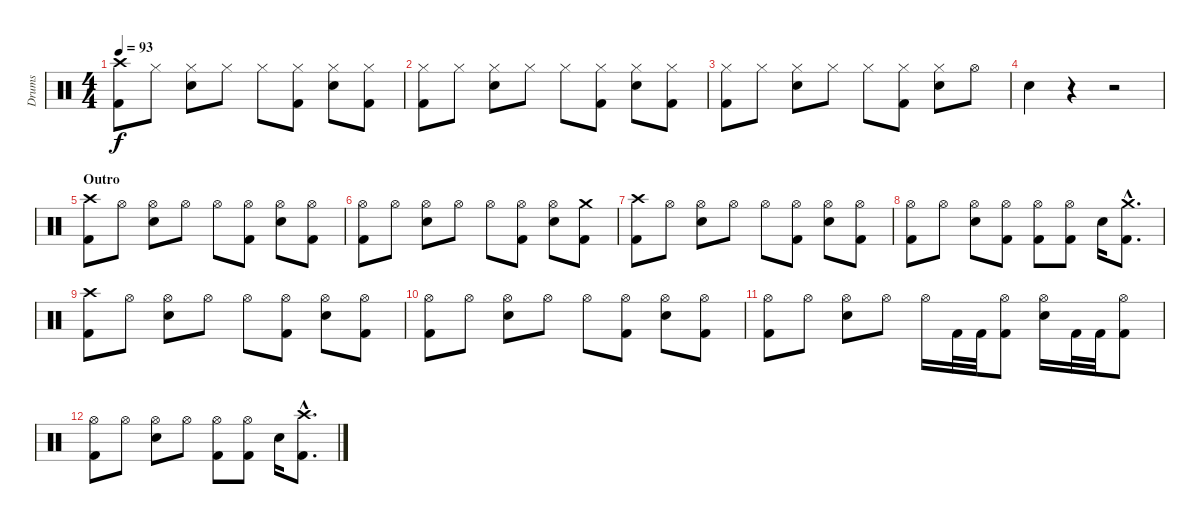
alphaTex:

\track ("Drums" "Drums") {instrument percussion}
\staff {score}
\articulation defaults
\ts (4 4)
\tempo 93
\clef neutral
\ks c
("Crash high (hit)" "Kick (hit) 2").8{dy f} "Hi-Hat (closed)".8 ("Hi-Hat (closed)" "Electric Snare (hit)").8 "Hi-Hat (closed)".8 "Hi-Hat (closed)".8 ("Hi-Hat (closed)" "Kick (hit) 2").8 ("Hi-Hat (closed)" "Electric Snare (hit)").8 ("Hi-Hat (closed)" "Kick (hit) 2").8 |
("Hi-Hat (closed)" "Kick (hit) 2").8 "Hi-Hat (closed)".8 ("Hi-Hat (closed)" "Electric Snare (hit)").8 "Hi-Hat (closed)".8 "Hi-Hat (closed)".8 ("Hi-Hat (closed)" "Kick (hit) 2").8 ("Hi-Hat (closed)" "Electric Snare (hit)").8 ("Hi-Hat (closed)" "Kick (hit) 2").8 |
("Hi-Hat (closed)" "Kick (hit) 2").8 "Hi-Hat (closed)".8 ("Hi-Hat (closed)" "Electric Snare (hit)").8 "Hi-Hat (closed)".8 "Hi-Hat (closed)".8 ("Hi-Hat (closed)" "Kick (hit) 2").8 ("Hi-Hat (closed)" "Electric Snare (hit)").8 "Hi-Hat (open)".8 |
"Electric Snare (hit)".4 r.4 r.2 |
\section ("" "Outro")
("Crash high (hit)" "Kick (hit) 2").8 "Hi-Hat (open)".8 ("Hi-Hat (open)" "Electric Snare (hit)").8 "Hi-Hat (open)".8 "Hi-Hat (open)".8 ("Hi-Hat (open)" "Kick (hit) 2").8 ("Hi-Hat (open)" "Electric Snare (hit)").8 ("Hi-Hat (open)" "Kick (hit) 2").8 |
("Hi-Hat (open)" "Kick (hit) 2").8 "Hi-Hat (open)".8 ("Hi-Hat (open)" "Electric Snare (hit)").8 "Hi-Hat (open)".8 "Hi-Hat (open)".8 ("Hi-Hat (open)" "Kick (hit) 2").8 ("Hi-Hat (open)" "Electric Snare (hit)").8 ("Crash medium (hit)" "Kick (hit) 2").8 |
("Crash high (hit)" "Kick (hit) 2").8 "Hi-Hat (open)".8 ("Hi-Hat (open)" "Electric Snare (hit)").8 "Hi-Hat (open)".8 "Hi-Hat (open)".8 ("Hi-Hat (open)" "Kick (hit) 2").8 ("Hi-Hat (open)" "Electric Snare (hit)").8 ("Hi-Hat (open)" "Kick (hit) 2").8 |
("Hi-Hat (open)" "Kick (hit) 2").8 "Hi-Hat (open)".8 ("Hi-Hat (open)" "Electric Snare (hit)").8 ("Hi-Hat (open)" "Kick (hit) 2").8 ("Hi-Hat (open)" "Kick (hit) 2").8 ("Hi-Hat (open)" "Kick (hit) 2").8 "Electric Snare (hit)".16 ("Crash medium (hit)"{hac} "Kick (hit) 2"{hac}).8{d} |
("Crash high (hit)" "Kick (hit) 2").8 "Hi-Hat (open)".8 ("Hi-Hat (open)" "Electric Snare (hit)").8 "Hi-Hat (open)".8 "Hi-Hat (open)".8 ("Hi-Hat (open)" "Kick (hit) 2").8 ("Hi-Hat (open)" "Electric Snare (hit)").8 ("Hi-Hat (open)" "Kick (hit) 2").8 |
("Hi-Hat (open)" "Kick (hit) 2").8 "Hi-Hat (open)".8 ("Hi-Hat (open)" "Electric Snare (hit)").8 "Hi-Hat (open)".8 "Hi-Hat (open)".8 ("Hi-Hat (open)" "Kick (hit) 2").8 ("Hi-Hat (open)" "Electric Snare (hit)").8 ("Hi-Hat (open)" "Kick (hit) 2").8 |
("Hi-Hat (open)" "Kick (hit) 2").8 "Hi-Hat (open)".8 ("Hi-Hat (open)" "Electric Snare (hit)").8 "Hi-Hat (open)".8 "Hi-Hat (open)".16 "Kick (hit) 2".32 "Kick (hit) 2".32 ("Hi-Hat (open)" "Kick (hit) 2").8 ("Hi-Hat (open)" "Electric Snare (hit)").16 "Kick (hit) 2".32 "Kick (hit) 2".32 ("Hi-Hat (open)" "Kick (hit) 2").8 |
("Hi-Hat (open)" "Kick (hit) 2").8 "Hi-Hat (open)".8 ("Hi-Hat (open)" "Electric Snare (hit)").8 "Hi-Hat (open)".8 ("Hi-Hat (open)" "Kick (hit) 2").8 ("Hi-Hat (open)" "Kick (hit) 2").8 "Electric Snare (hit)".16 ("Crash high (hit)"{hac} "Kick (hit) 2"{hac}).8{d}
